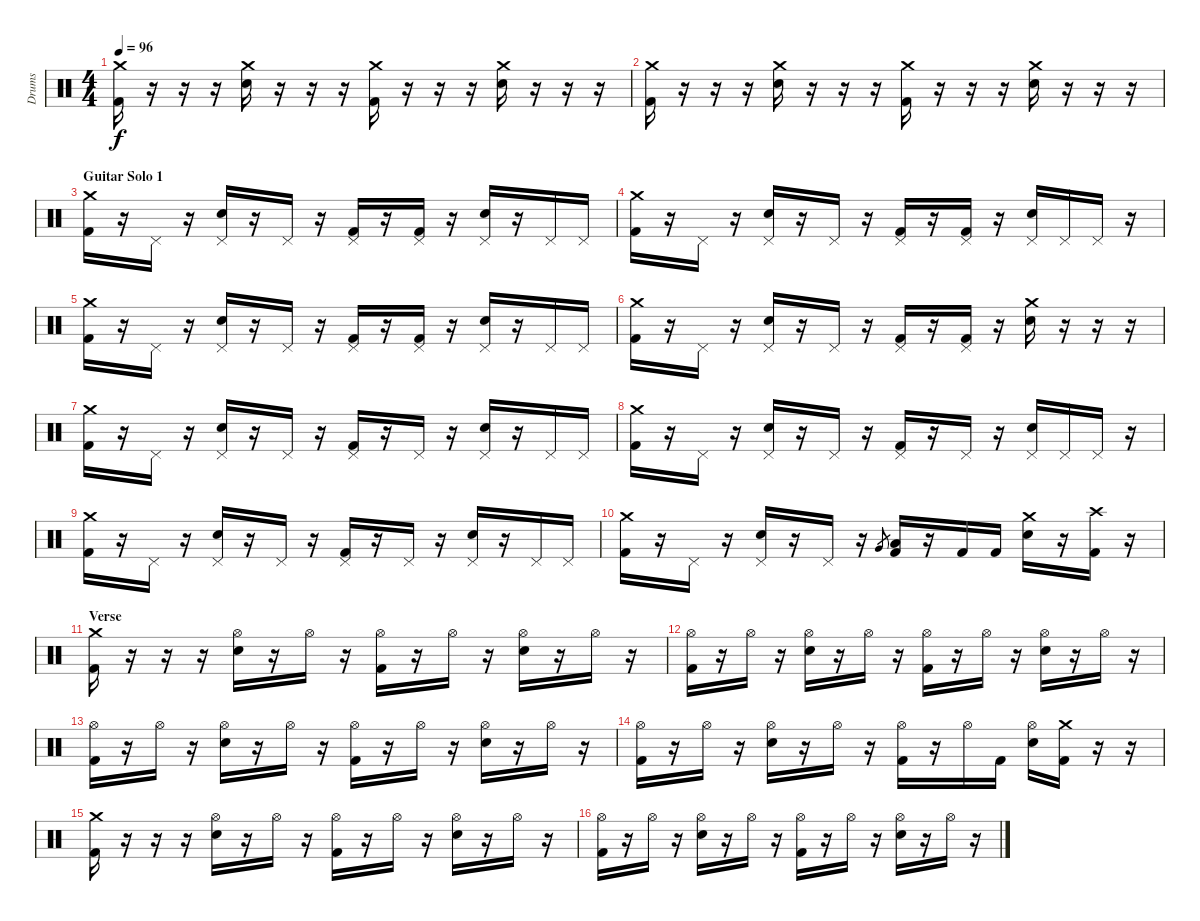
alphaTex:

\track ("Drums" "Drums") {instrument percussion}
\staff {score}
\articulation defaults
\ts (4 4)
\tempo 96
\clef neutral
\ks c
("Crash medium (hit)" "Kick (hit) 2").16{dy f} r.16 r.16 r.16 ("Crash medium (hit)" "Electric Snare (hit)").16 r.16 r.16 r.16 ("Crash medium (hit)" "Kick (hit) 2").16 r.16 r.16 r.16 ("Crash medium (hit)" "Electric Snare (hit)").16 r.16 r.16 r.16 |
("Crash medium (hit)" "Kick (hit) 2").16 r.16 r.16 r.16 ("Crash medium (hit)" "Electric Snare (hit)").16 r.16 r.16 r.16 ("Crash medium (hit)" "Kick (hit) 2").16 r.16 r.16 r.16 ("Crash medium (hit)" "Electric Snare (hit)").16 r.16 r.16 r.16 |
\section ("" "Guitar Solo 1")
("Crash medium (hit)" "Kick (hit) 2").16 r.16 "Pedal Hi-Hat (hit)".16 r.16 ("Pedal Hi-Hat (hit)" "Electric Snare (hit)").16 r.16 "Pedal Hi-Hat (hit)".16 r.16 ("Pedal Hi-Hat (hit)" "Kick (hit) 2").16 r.16 ("Pedal Hi-Hat (hit)" "Kick (hit) 2").16 r.16 ("Pedal Hi-Hat (hit)" "Electric Snare (hit)").16 r.16 "Pedal Hi-Hat (hit)".16 "Pedal Hi-Hat (hit)".16 |
("Crash medium (hit)" "Kick (hit) 2").16 r.16 "Pedal Hi-Hat (hit)".16 r.16 ("Pedal Hi-Hat (hit)" "Electric Snare (hit)").16 r.16 "Pedal Hi-Hat (hit)".16 r.16 ("Pedal Hi-Hat (hit)" "Kick (hit) 2").16 r.16 ("Pedal Hi-Hat (hit)" "Kick (hit) 2").16 r.16 ("Pedal Hi-Hat (hit)" "Electric Snare (hit)").16 "Pedal Hi-Hat (hit)".16 "Pedal Hi-Hat (hit)".16 r.16 |
("Crash medium (hit)" "Kick (hit) 2").16 r.16 "Pedal Hi-Hat (hit)".16 r.16 ("Pedal Hi-Hat (hit)" "Electric Snare (hit)").16 r.16 "Pedal Hi-Hat (hit)".16 r.16 ("Pedal Hi-Hat (hit)" "Kick (hit) 2").16 r.16 ("Pedal Hi-Hat (hit)" "Kick (hit) 2").16 r.16 ("Pedal Hi-Hat (hit)" "Electric Snare (hit)").16 r.16 "Pedal Hi-Hat (hit)".16 "Pedal Hi-Hat (hit)".16 |
("Crash medium (hit)" "Kick (hit) 2").16 r.16 "Pedal Hi-Hat (hit)".16 r.16 ("Pedal Hi-Hat (hit)" "Electric Snare (hit)").16 r.16 "Pedal Hi-Hat (hit)".16 r.16 ("Pedal Hi-Hat (hit)" "Kick (hit) 2").16 r.16 ("Pedal Hi-Hat (hit)" "Kick (hit) 2").16 r.16 ("Crash medium (hit)" "Electric Snare (hit)").16 r.16 r.16 r.16 |
("Crash medium (hit)" "Kick (hit) 2").16 r.16 "Pedal Hi-Hat (hit)".16 r.16 ("Pedal Hi-Hat (hit)" "Electric Snare (hit)").16 r.16 "Pedal Hi-Hat (hit)".16 r.16 ("Pedal Hi-Hat (hit)" "Kick (hit) 2").16 r.16 "Pedal Hi-Hat (hit)".16 r.16 ("Pedal Hi-Hat (hit)" "Electric Snare (hit)").16 r.16 "Pedal Hi-Hat (hit)".16 "Pedal Hi-Hat (hit)".16 |
("Crash medium (hit)" "Kick (hit) 2").16 r.16 "Pedal Hi-Hat (hit)".16 r.16 ("Pedal Hi-Hat (hit)" "Electric Snare (hit)").16 r.16 "Pedal Hi-Hat (hit)".16 r.16 ("Pedal Hi-Hat (hit)" "Kick (hit) 2").16 r.16 "Pedal Hi-Hat (hit)".16 r.16 ("Pedal Hi-Hat (hit)" "Electric Snare (hit)").16 "Pedal Hi-Hat (hit)".16 "Pedal Hi-Hat (hit)".16 r.16 |
("Crash medium (hit)" "Kick (hit) 2").16 r.16 "Pedal Hi-Hat (hit)".16 r.16 ("Pedal Hi-Hat (hit)" "Electric Snare (hit)").16 r.16 "Pedal Hi-Hat (hit)".16 r.16 ("Pedal Hi-Hat (hit)" "Kick (hit) 2").16 r.16 "Pedal Hi-Hat (hit)".16 r.16 ("Pedal Hi-Hat (hit)" "Electric Snare (hit)").16 r.16 "Pedal Hi-Hat (hit)".16 "Pedal Hi-Hat (hit)".16 |
("Crash medium (hit)" "Kick (hit) 2").16 r.16 "Pedal Hi-Hat (hit)".16 r.16 ("Pedal Hi-Hat (hit)" "Electric Snare (hit)").16 r.16 "Pedal Hi-Hat (hit)".16 r.16 "Very Low Tom (hit)".8{gr} ("Low Tom (hit)" "Kick (hit) 2").16 r.16 "Kick (hit) 2".16 "Kick (hit) 2".16 ("Crash medium (hit)" "Electric Snare (hit)").16 r.16 ("Crash high (hit)" "Kick (hit) 2").16 r.16 |
\section ("" "Verse")
("Crash medium (hit)" "Kick (hit) 2").16 r.16 r.16 r.16 ("Hi-Hat (open)" "Electric Snare (hit)").16 r.16 "Hi-Hat (open)".16 r.16 ("Hi-Hat (open)" "Kick (hit) 2").16 r.16 "Hi-Hat (open)".16 r.16 ("Hi-Hat (open)" "Electric Snare (hit)").16 r.16 "Hi-Hat (open)".16 r.16 |
("Hi-Hat (open)" "Kick (hit) 2").16 r.16 "Hi-Hat (open)".16 r.16 ("Hi-Hat (open)" "Electric Snare (hit)").16 r.16 "Hi-Hat (open)".16 r.16 ("Hi-Hat (open)" "Kick (hit) 2").16 r.16 "Hi-Hat (open)".16 r.16 ("Hi-Hat (open)" "Electric Snare (hit)").16 r.16 "Hi-Hat (open)".16 r.16 |
("Hi-Hat (open)" "Kick (hit) 2").16 r.16 "Hi-Hat (open)".16 r.16 ("Hi-Hat (open)" "Electric Snare (hit)").16 r.16 "Hi-Hat (open)".16 r.16 ("Hi-Hat (open)" "Kick (hit) 2").16 r.16 "Hi-Hat (open)".16 r.16 ("Hi-Hat (open)" "Electric Snare (hit)").16 r.16 "Hi-Hat (open)".16 r.16 |
("Hi-Hat (open)" "Kick (hit) 2").16 r.16 "Hi-Hat (open)".16 r.16 ("Hi-Hat (open)" "Electric Snare (hit)").16 r.16 "Hi-Hat (open)".16 r.16 ("Hi-Hat (open)" "Kick (hit) 2").16 r.16 "Hi-Hat (open)".16 "Kick (hit) 2".16 ("Hi-Hat (open)" "Electric Snare (hit)").16 ("Crash medium (hit)" "Kick (hit) 2").16 r.16 r.16 |
("Crash medium (hit)" "Kick (hit) 2").16 r.16 r.16 r.16 ("Hi-Hat (open)" "Electric Snare (hit)").16 r.16 "Hi-Hat (open)".16 r.16 ("Hi-Hat (open)" "Kick (hit) 2").16 r.16 "Hi-Hat (open)".16 r.16 ("Hi-Hat (open)" "Electric Snare (hit)").16 r.16 "Hi-Hat (open)".16 r.16 |
("Hi-Hat (open)" "Kick (hit) 2").16 r.16 "Hi-Hat (open)".16 r.16 ("Hi-Hat (open)" "Electric Snare (hit)").16 r.16 "Hi-Hat (open)".16 r.16 ("Hi-Hat (open)" "Kick (hit) 2").16 r.16 "Hi-Hat (open)".16 r.16 ("Hi-Hat (open)" "Electric Snare (hit)").16 r.16 "Hi-Hat (open)".16 r.16
